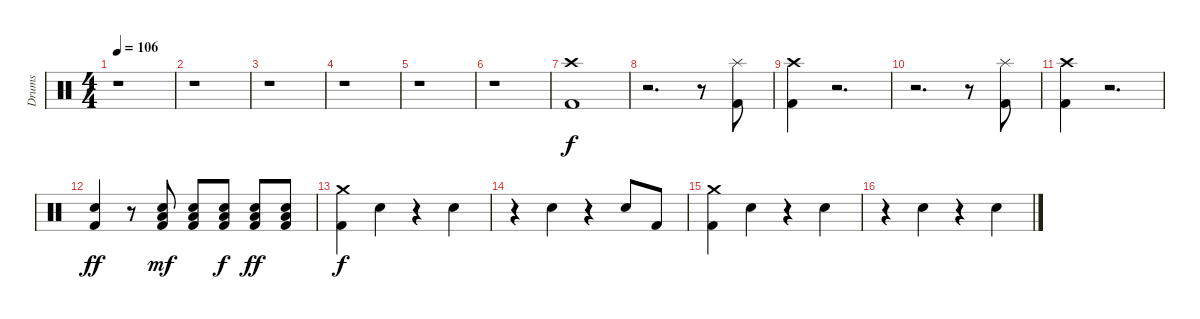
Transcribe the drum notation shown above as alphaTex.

\track ("Drums" "Drums") {instrument percussion}
\staff {score}
\articulation defaults
\ts (4 4)
\tempo 106
\clef neutral
\ks c
r.1{dy f} |
r.1 |
r.1 |
r.1 |
r.1 |
r.1 |
("Crash high (hit)" "Kick (hit) 2").1 |
r.2{d} r.8 ("Splash (hit)" "Kick (hit) 2").8 |
("Crash high (hit)" "Kick (hit) 2").4 r.2{d} |
r.2{d} r.8 ("Kick (hit) 2" "Splash (hit)").8 |
("Crash high (hit)" "Kick (hit) 2").4 r.2{d} |
("Kick (hit) 2" "Electric Snare (hit)").4{dy ff} r.8 ("Kick (hit) 2" "Low Floor Tom (hit)" "Electric Snare (hit)").8{dy mf} ("Electric Snare (hit)" "Kick (hit) 2" "Low Floor Tom (hit)").8 ("Electric Snare (hit)" "Low Floor Tom (hit)" "Kick (hit) 2").8{dy f} ("Low Floor Tom (hit)" "Electric Snare (hit)" "Kick (hit) 2").8{dy ff} ("Electric Snare (hit)" "Kick (hit) 2" "Low Floor Tom (hit)").8 |
("Crash medium (hit)" "Kick (hit) 2").4{dy f} "Electric Snare (hit)".4 r.4 "Electric Snare (hit)".4 |
r.4 "Electric Snare (hit)".4 r.4 "Electric Snare (hit)".8 "Kick (hit) 2".8 |
("Crash medium (hit)" "Kick (hit) 2").4 "Electric Snare (hit)".4 r.4 "Electric Snare (hit)".4 |
r.4 "Electric Snare (hit)".4 r.4 "Electric Snare (hit)".4
